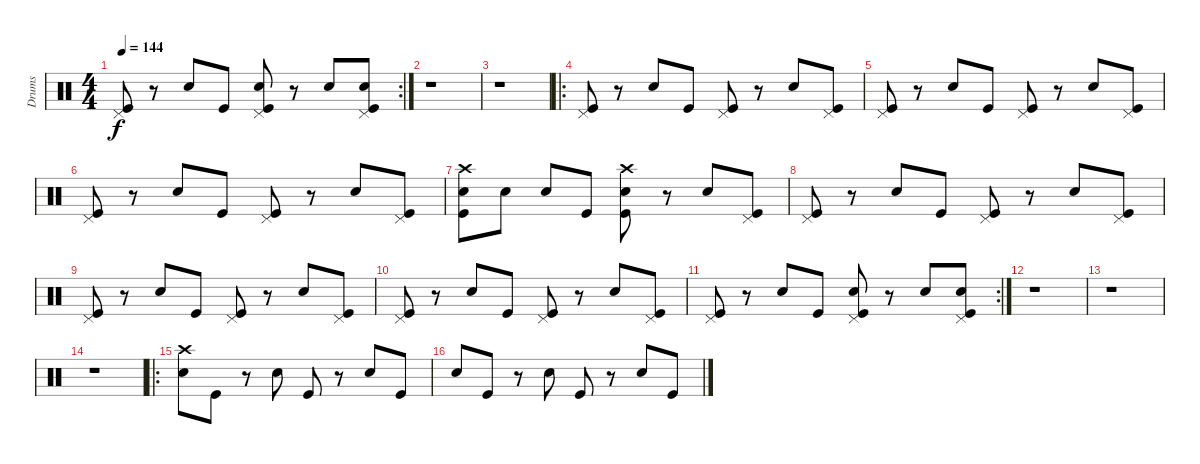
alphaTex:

\track ("Drums" "Drums") {instrument percussion}
\staff {score}
\articulation defaults
\rc 2
\ts (4 4)
\tempo 144
\clef neutral
\ks c
("Pedal Hi-Hat (hit)" "Kick (hit)").8{dy f} r.8 "Snare (hit) 2".8 "Kick (hit)".8 ("Pedal Hi-Hat (hit)" "Snare (hit) 2" "Kick (hit)").8 r.8 "Snare (hit) 2".8 ("Pedal Hi-Hat (hit)" "Snare (hit) 2" "Kick (hit)").8 |
r.1 |
r.1 |
\ro
("Pedal Hi-Hat (hit)" "Kick (hit)").8 r.8 "Snare (hit) 2".8 "Kick (hit)".8 ("Pedal Hi-Hat (hit)" "Kick (hit)").8 r.8 "Snare (hit) 2".8 ("Pedal Hi-Hat (hit)" "Kick (hit)").8 |
("Pedal Hi-Hat (hit)" "Kick (hit)").8 r.8 "Snare (hit) 2".8 "Kick (hit)".8 ("Pedal Hi-Hat (hit)" "Kick (hit)").8 r.8 "Snare (hit) 2".8 ("Pedal Hi-Hat (hit)" "Kick (hit)").8 |
("Pedal Hi-Hat (hit)" "Kick (hit)").8 r.8 "Snare (hit) 2".8 "Kick (hit)".8 ("Pedal Hi-Hat (hit)" "Kick (hit)").8 r.8 "Snare (hit) 2".8 ("Pedal Hi-Hat (hit)" "Kick (hit)").8 |
("Crash high (hit)" "Snare (hit) 2" "Kick (hit)").8 "Snare (hit) 2".8 "Snare (hit) 2".8 "Kick (hit)".8 ("Crash high (hit)" "Snare (hit) 2" "Kick (hit)").8 r.8 "Snare (hit) 2".8 ("Pedal Hi-Hat (hit)" "Kick (hit)").8 |
("Pedal Hi-Hat (hit)" "Kick (hit)").8 r.8 "Snare (hit) 2".8 "Kick (hit)".8 ("Pedal Hi-Hat (hit)" "Kick (hit)").8 r.8 "Snare (hit) 2".8 ("Pedal Hi-Hat (hit)" "Kick (hit)").8 |
("Pedal Hi-Hat (hit)" "Kick (hit)").8 r.8 "Snare (hit) 2".8 "Kick (hit)".8 ("Pedal Hi-Hat (hit)" "Kick (hit)").8 r.8 "Snare (hit) 2".8 ("Pedal Hi-Hat (hit)" "Kick (hit)").8 |
("Pedal Hi-Hat (hit)" "Kick (hit)").8 r.8 "Snare (hit) 2".8 "Kick (hit)".8 ("Pedal Hi-Hat (hit)" "Kick (hit)").8 r.8 "Snare (hit) 2".8 ("Pedal Hi-Hat (hit)" "Kick (hit)").8 |
\rc 2
("Pedal Hi-Hat (hit)" "Kick (hit)").8 r.8 "Snare (hit) 2".8 "Kick (hit)".8 ("Pedal Hi-Hat (hit)" "Snare (hit) 2" "Kick (hit)").8 r.8 "Snare (hit) 2".8 ("Pedal Hi-Hat (hit)" "Snare (hit) 2" "Kick (hit)").8 |
r.1 |
r.1 |
r.1 |
\ro
("Crash high (hit)" "Snare (hit) 2").8 "Kick (hit)".8 r.8 "Snare (hit) 2".8 "Kick (hit)".8 r.8 "Snare (hit) 2".8 "Kick (hit)".8 |
"Snare (hit) 2".8 "Kick (hit)".8 r.8 "Snare (hit) 2".8 "Kick (hit)".8 r.8 "Snare (hit) 2".8 "Kick (hit)".8
